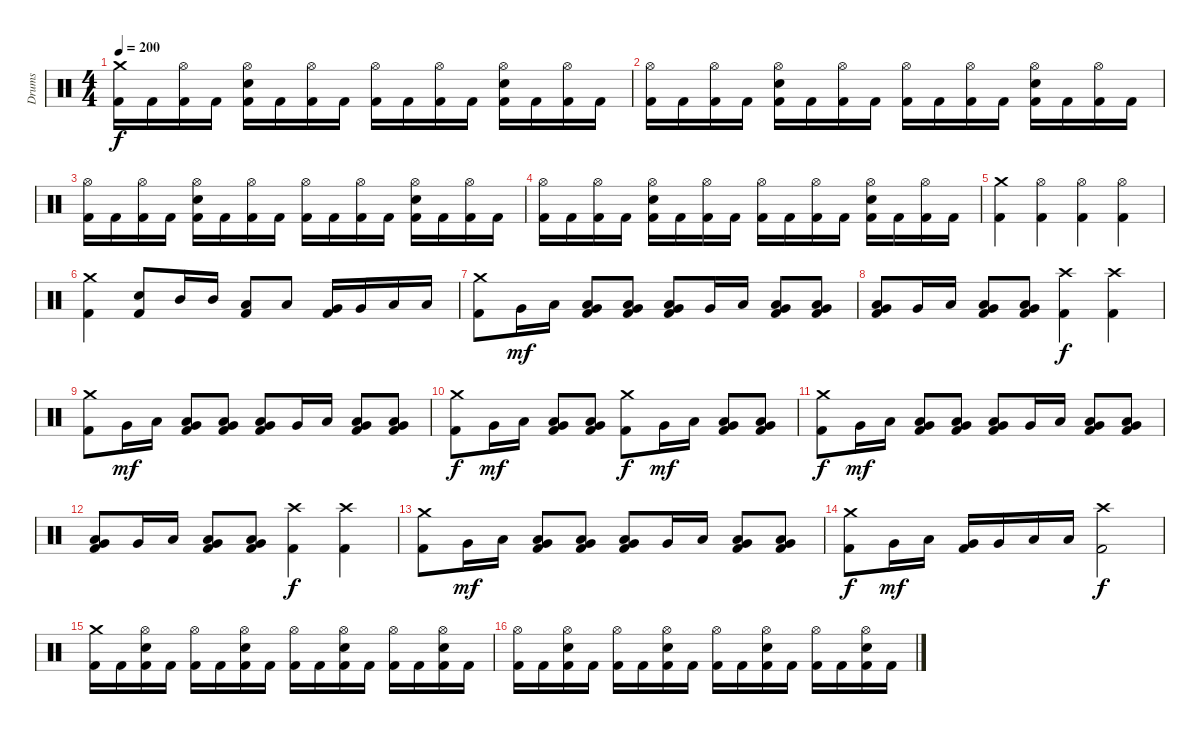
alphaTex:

\track ("Drums" "Drums") {instrument percussion}
\staff {score}
\articulation defaults
\ts (4 4)
\tempo 200
\clef neutral
\ks c
("Crash medium (hit)" "Kick (hit) 2").16{dy f} "Kick (hit) 2".16 ("Hi-Hat (open)" "Kick (hit) 2").16 "Kick (hit) 2".16 ("Hi-Hat (open)" "Snare (hit) 2" "Kick (hit) 2").16 "Kick (hit) 2".16 ("Hi-Hat (open)" "Kick (hit) 2").16 "Kick (hit) 2".16 ("Hi-Hat (open)" "Kick (hit) 2").16 "Kick (hit) 2".16 ("Hi-Hat (open)" "Kick (hit) 2").16 "Kick (hit) 2".16 ("Hi-Hat (open)" "Snare (hit) 2" "Kick (hit) 2").16 "Kick (hit) 2".16 ("Hi-Hat (open)" "Kick (hit) 2").16 "Kick (hit) 2".16 |
("Hi-Hat (open)" "Kick (hit) 2").16 "Kick (hit) 2".16 ("Hi-Hat (open)" "Kick (hit) 2").16 "Kick (hit) 2".16 ("Hi-Hat (open)" "Snare (hit) 2" "Kick (hit) 2").16 "Kick (hit) 2".16 ("Hi-Hat (open)" "Kick (hit) 2").16 "Kick (hit) 2".16 ("Hi-Hat (open)" "Kick (hit) 2").16 "Kick (hit) 2".16 ("Hi-Hat (open)" "Kick (hit) 2").16 "Kick (hit) 2".16 ("Hi-Hat (open)" "Snare (hit) 2" "Kick (hit) 2").16 "Kick (hit) 2".16 ("Hi-Hat (open)" "Kick (hit) 2").16 "Kick (hit) 2".16 |
("Hi-Hat (open)" "Kick (hit) 2").16 "Kick (hit) 2".16 ("Hi-Hat (open)" "Kick (hit) 2").16 "Kick (hit) 2".16 ("Hi-Hat (open)" "Snare (hit) 2" "Kick (hit) 2").16 "Kick (hit) 2".16 ("Hi-Hat (open)" "Kick (hit) 2").16 "Kick (hit) 2".16 ("Hi-Hat (open)" "Kick (hit) 2").16 "Kick (hit) 2".16 ("Hi-Hat (open)" "Kick (hit) 2").16 "Kick (hit) 2".16 ("Hi-Hat (open)" "Snare (hit) 2" "Kick (hit) 2").16 "Kick (hit) 2".16 ("Hi-Hat (open)" "Kick (hit) 2").16 "Kick (hit) 2".16 |
("Hi-Hat (open)" "Kick (hit) 2").16 "Kick (hit) 2".16 ("Hi-Hat (open)" "Kick (hit) 2").16 "Kick (hit) 2".16 ("Hi-Hat (open)" "Snare (hit) 2" "Kick (hit) 2").16 "Kick (hit) 2".16 ("Hi-Hat (open)" "Kick (hit) 2").16 "Kick (hit) 2".16 ("Hi-Hat (open)" "Kick (hit) 2").16 "Kick (hit) 2".16 ("Hi-Hat (open)" "Kick (hit) 2").16 "Kick (hit) 2".16 ("Hi-Hat (open)" "Snare (hit) 2" "Kick (hit) 2").16 "Kick (hit) 2".16 ("Hi-Hat (open)" "Kick (hit) 2").16 "Kick (hit) 2".16 |
("Crash medium (hit)" "Kick (hit) 2").4 ("Hi-Hat (open)" "Kick (hit) 2").4 ("Hi-Hat (open)" "Kick (hit) 2").4 ("Hi-Hat (open)" "Kick (hit) 2").4 |
("Crash medium (hit)" "Kick (hit) 2").4 ("Snare (hit) 2" "Kick (hit) 2").8 "Mid Tom (hit)".16 "Mid Tom (hit)".16 ("Low Tom (hit)" "Kick (hit) 2").8 "Low Tom (hit)".8 ("Very Low Tom (hit)" "Kick (hit) 2").16 "Very Low Tom (hit)".16 "Low Floor Tom (hit)".16 "Low Floor Tom (hit)".16 |
("Crash medium (hit)" "Kick (hit) 2").8 "Very Low Tom (hit)".16{dy mf} "Low Floor Tom (hit)".16 ("Very Low Tom (hit)" "Low Floor Tom (hit)" "Kick (hit) 2").8 ("Very Low Tom (hit)" "Low Floor Tom (hit)" "Kick (hit) 2").8 ("Very Low Tom (hit)" "Low Floor Tom (hit)" "Kick (hit) 2").8 "Very Low Tom (hit)".16 "Low Floor Tom (hit)".16 ("Very Low Tom (hit)" "Low Floor Tom (hit)" "Kick (hit) 2").8 ("Very Low Tom (hit)" "Low Floor Tom (hit)" "Kick (hit) 2").8 |
("Very Low Tom (hit)" "Low Floor Tom (hit)" "Kick (hit) 2").8 "Very Low Tom (hit)".16 "Low Floor Tom (hit)".16 ("Very Low Tom (hit)" "Low Floor Tom (hit)" "Kick (hit) 2").8 ("Very Low Tom (hit)" "Low Floor Tom (hit)" "Kick (hit) 2").8 ("Crash high (hit)" "Kick (hit) 2").4{dy f} ("Crash high (hit)" "Kick (hit) 2").4 |
("Crash medium (hit)" "Kick (hit) 2").8 "Very Low Tom (hit)".16{dy mf} "Low Floor Tom (hit)".16 ("Very Low Tom (hit)" "Low Floor Tom (hit)" "Kick (hit) 2").8 ("Very Low Tom (hit)" "Low Floor Tom (hit)" "Kick (hit) 2").8 ("Very Low Tom (hit)" "Low Floor Tom (hit)" "Kick (hit) 2").8 "Very Low Tom (hit)".16 "Low Floor Tom (hit)".16 ("Very Low Tom (hit)" "Low Floor Tom (hit)" "Kick (hit) 2").8 ("Very Low Tom (hit)" "Low Floor Tom (hit)" "Kick (hit) 2").8 |
("Crash medium (hit)" "Kick (hit) 2").8{dy f} "Very Low Tom (hit)".16{dy mf} "Low Floor Tom (hit)".16 ("Very Low Tom (hit)" "Low Floor Tom (hit)" "Kick (hit) 2").8 ("Very Low Tom (hit)" "Low Floor Tom (hit)" "Kick (hit) 2").8 ("Crash medium (hit)" "Kick (hit) 2").8{dy f} "Very Low Tom (hit)".16{dy mf} "Low Floor Tom (hit)".16 ("Very Low Tom (hit)" "Low Floor Tom (hit)" "Kick (hit) 2").8 ("Very Low Tom (hit)" "Low Floor Tom (hit)" "Kick (hit) 2").8 |
("Crash medium (hit)" "Kick (hit) 2").8{dy f} "Very Low Tom (hit)".16{dy mf} "Low Floor Tom (hit)".16 ("Very Low Tom (hit)" "Low Floor Tom (hit)" "Kick (hit) 2").8 ("Very Low Tom (hit)" "Low Floor Tom (hit)" "Kick (hit) 2").8 ("Very Low Tom (hit)" "Low Floor Tom (hit)" "Kick (hit) 2").8 "Very Low Tom (hit)".16 "Low Floor Tom (hit)".16 ("Very Low Tom (hit)" "Low Floor Tom (hit)" "Kick (hit) 2").8 ("Very Low Tom (hit)" "Low Floor Tom (hit)" "Kick (hit) 2").8 |
("Very Low Tom (hit)" "Low Floor Tom (hit)" "Kick (hit) 2").8 "Very Low Tom (hit)".16 "Low Floor Tom (hit)".16 ("Very Low Tom (hit)" "Low Floor Tom (hit)" "Kick (hit) 2").8 ("Very Low Tom (hit)" "Low Floor Tom (hit)" "Kick (hit) 2").8 ("Crash high (hit)" "Kick (hit) 2").4{dy f} ("Crash high (hit)" "Kick (hit) 2").4 |
("Crash medium (hit)" "Kick (hit) 2").8 "Very Low Tom (hit)".16{dy mf} "Low Floor Tom (hit)".16 ("Very Low Tom (hit)" "Low Floor Tom (hit)" "Kick (hit) 2").8 ("Very Low Tom (hit)" "Low Floor Tom (hit)" "Kick (hit) 2").8 ("Very Low Tom (hit)" "Low Floor Tom (hit)" "Kick (hit) 2").8 "Very Low Tom (hit)".16 "Low Floor Tom (hit)".16 ("Very Low Tom (hit)" "Low Floor Tom (hit)" "Kick (hit) 2").8 ("Very Low Tom (hit)" "Low Floor Tom (hit)" "Kick (hit) 2").8 |
("Crash medium (hit)" "Kick (hit) 2").8{dy f} "Very Low Tom (hit)".16{dy mf} "Low Floor Tom (hit)".16 ("Very Low Tom (hit)" "Kick (hit) 2").16 "Very Low Tom (hit)".16 "Low Floor Tom (hit)".16 "Low Floor Tom (hit)".16 ("Crash high (hit)" "Kick (hit) 2").2{dy f} |
("Crash medium (hit)" "Kick (hit) 2").16 "Kick (hit) 2".16 ("Hi-Hat (open)" "Snare (hit) 2" "Kick (hit) 2").16 "Kick (hit) 2".16 ("Hi-Hat (open)" "Kick (hit) 2").16 "Kick (hit) 2".16 ("Hi-Hat (open)" "Snare (hit) 2" "Kick (hit) 2").16 "Kick (hit) 2".16 ("Hi-Hat (open)" "Kick (hit) 2").16 "Kick (hit) 2".16 ("Hi-Hat (open)" "Snare (hit) 2" "Kick (hit) 2").16 "Kick (hit) 2".16 ("Hi-Hat (open)" "Kick (hit) 2").16 "Kick (hit) 2".16 ("Hi-Hat (open)" "Snare (hit) 2" "Kick (hit) 2").16 "Kick (hit) 2".16 |
("Hi-Hat (open)" "Kick (hit) 2").16 "Kick (hit) 2".16 ("Hi-Hat (open)" "Snare (hit) 2" "Kick (hit) 2").16 "Kick (hit) 2".16 ("Hi-Hat (open)" "Kick (hit) 2").16 "Kick (hit) 2".16 ("Hi-Hat (open)" "Snare (hit) 2" "Kick (hit) 2").16 "Kick (hit) 2".16 ("Hi-Hat (open)" "Kick (hit) 2").16 "Kick (hit) 2".16 ("Hi-Hat (open)" "Snare (hit) 2" "Kick (hit) 2").16 "Kick (hit) 2".16 ("Hi-Hat (open)" "Kick (hit) 2").16 "Kick (hit) 2".16 ("Hi-Hat (open)" "Snare (hit) 2" "Kick (hit) 2").16 "Kick (hit) 2".16
